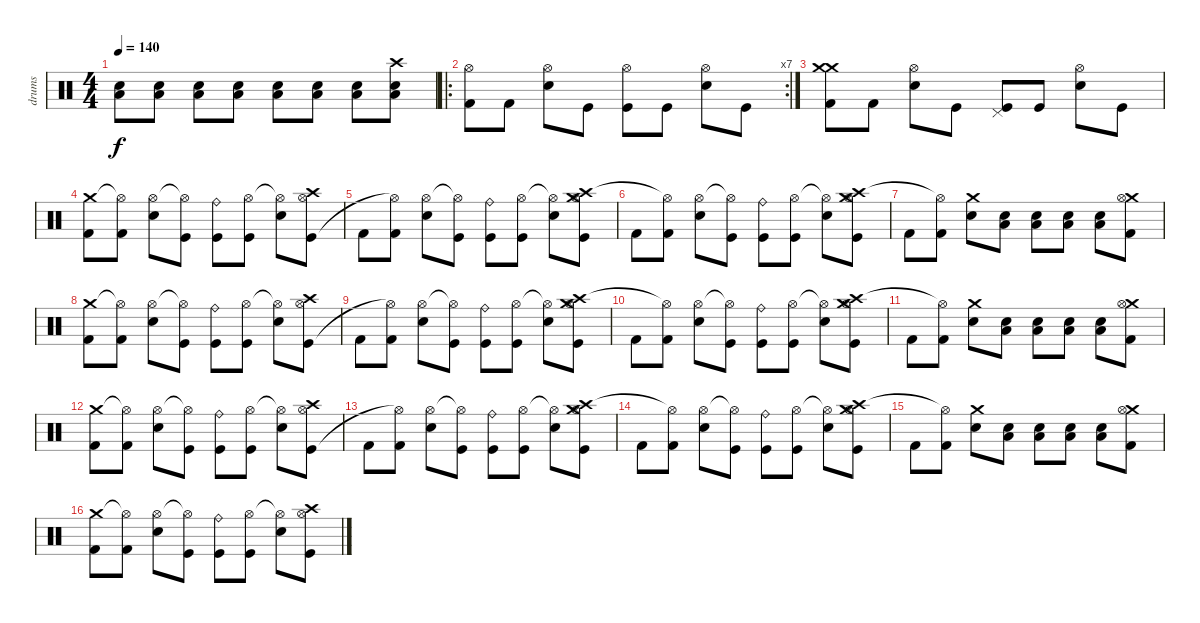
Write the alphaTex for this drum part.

\track ("drums" "drums") {instrument percussion}
\staff {score}
\articulation defaults
\ts (4 4)
\tempo 140
\clef neutral
\ks c
("Snare (hit) 2" "Low Floor Tom (hit)").8{dy f} ("Snare (hit) 2" "Low Floor Tom (hit)").8 ("Snare (hit) 2" "Low Floor Tom (hit)").8 ("Snare (hit) 2" "Low Floor Tom (hit)").8{volume 12} ("Snare (hit) 2" "Low Floor Tom (hit)").8 ("Snare (hit) 2" "Low Floor Tom (hit)").8 ("Snare (hit) 2" "Low Floor Tom (hit)").8 ("Crash high (hit)" "Snare (hit) 2" "Low Floor Tom (hit)").8 |
\ro
\rc 7
("Kick (hit) 2" "Hi-Hat (open)").8 "Kick (hit) 2".8 ("Snare (hit) 2" "Hi-Hat (open)").8 "Kick (hit)".8 ("Kick (hit)" "Hi-Hat (open)").8 "Kick (hit)".8 ("Snare (hit) 2" "Hi-Hat (open)").8 "Kick (hit)".8 |
("Crash medium (hit)" "Kick (hit) 2" "Crash medium (hit)").8 "Kick (hit) 2".8 ("Snare (hit) 2" "Hi-Hat (open)").8 "Kick (hit)".8 ("Kick (hit)" "Pedal Hi-Hat (hit)").8 "Kick (hit)".8 ("Snare (hit) 2" "Hi-Hat (open)").8 "Kick (hit)".8 |
("Kick (hit) 2" "Crash medium (hit)").8 ("Kick (hit) 2" "Hi-Hat (open)"{t}).8 ("Snare (hit) 2" "Hi-Hat (open)").8 ("Kick (hit)" "Hi-Hat (open)"{t}).8 ("Kick (hit)" "Ride (bell)").8 ("Kick (hit)" "Hi-Hat (open)").8 ("Snare (hit) 2" "Hi-Hat (open)"{t}).8 ("Crash high (hit)" "Kick (hit)" "Hi-Hat (open)").8 |
"Kick (hit) 2".8 ("Kick (hit) 2" "Hi-Hat (open)"{t}).8 ("Snare (hit) 2" "Hi-Hat (open)").8 ("Kick (hit)" "Hi-Hat (open)"{t}).8 ("Kick (hit)" "Ride (bell)").8 ("Kick (hit)" "Hi-Hat (open)").8 ("Snare (hit) 2" "Hi-Hat (open)"{t}).8 ("Crash medium (hit)" "Crash high (hit)" "Kick (hit)" "Hi-Hat (open)").8 |
"Kick (hit) 2".8 ("Kick (hit) 2" "Hi-Hat (open)"{t}).8 ("Snare (hit) 2" "Hi-Hat (open)").8 ("Kick (hit)" "Hi-Hat (open)"{t}).8 ("Kick (hit)" "Ride (bell)").8 ("Kick (hit)" "Hi-Hat (open)").8 ("Snare (hit) 2" "Hi-Hat (open)"{t}).8 ("Crash medium (hit)" "Crash high (hit)" "Kick (hit)" "Hi-Hat (open)").8 |
"Kick (hit) 2".8 ("Kick (hit) 2" "Hi-Hat (open)"{t}).8 ("Snare (hit) 2" "Crash medium (hit)").8 ("Snare (hit) 2" "Low Floor Tom (hit)").8 ("Snare (hit) 2" "Low Floor Tom (hit)").8 ("Snare (hit) 2" "Low Floor Tom (hit)").8 ("Snare (hit) 2" "Low Floor Tom (hit)").8 ("Crash medium (hit)" "Kick (hit) 2" "Hi-Hat (open)").8 |
("Kick (hit) 2" "Crash medium (hit)").8 ("Kick (hit) 2" "Hi-Hat (open)"{t}).8 ("Snare (hit) 2" "Hi-Hat (open)").8 ("Kick (hit)" "Hi-Hat (open)"{t}).8 ("Kick (hit)" "Ride (bell)").8 ("Kick (hit)" "Hi-Hat (open)").8 ("Snare (hit) 2" "Hi-Hat (open)"{t}).8 ("Crash high (hit)" "Kick (hit)" "Hi-Hat (open)").8 |
"Kick (hit) 2".8 ("Kick (hit) 2" "Hi-Hat (open)"{t}).8 ("Snare (hit) 2" "Hi-Hat (open)").8 ("Kick (hit)" "Hi-Hat (open)"{t}).8 ("Kick (hit)" "Ride (bell)").8 ("Kick (hit)" "Hi-Hat (open)").8 ("Snare (hit) 2" "Hi-Hat (open)"{t}).8 ("Crash medium (hit)" "Crash high (hit)" "Kick (hit)" "Hi-Hat (open)").8 |
"Kick (hit) 2".8 ("Kick (hit) 2" "Hi-Hat (open)"{t}).8 ("Snare (hit) 2" "Hi-Hat (open)").8 ("Kick (hit)" "Hi-Hat (open)"{t}).8 ("Kick (hit)" "Ride (bell)").8 ("Kick (hit)" "Hi-Hat (open)").8 ("Snare (hit) 2" "Hi-Hat (open)"{t}).8 ("Crash medium (hit)" "Crash high (hit)" "Kick (hit)" "Hi-Hat (open)").8 |
"Kick (hit) 2".8 ("Kick (hit) 2" "Hi-Hat (open)"{t}).8 ("Snare (hit) 2" "Crash medium (hit)").8 ("Snare (hit) 2" "Low Floor Tom (hit)").8 ("Snare (hit) 2" "Low Floor Tom (hit)").8 ("Snare (hit) 2" "Low Floor Tom (hit)").8 ("Snare (hit) 2" "Low Floor Tom (hit)").8 ("Crash medium (hit)" "Kick (hit) 2" "Hi-Hat (open)").8 |
("Kick (hit) 2" "Crash medium (hit)").8 ("Kick (hit) 2" "Hi-Hat (open)"{t}).8 ("Snare (hit) 2" "Hi-Hat (open)").8 ("Kick (hit)" "Hi-Hat (open)"{t}).8 ("Kick (hit)" "Ride (bell)").8 ("Kick (hit)" "Hi-Hat (open)").8 ("Snare (hit) 2" "Hi-Hat (open)"{t}).8 ("Crash high (hit)" "Kick (hit)" "Hi-Hat (open)").8 |
"Kick (hit) 2".8 ("Kick (hit) 2" "Hi-Hat (open)"{t}).8 ("Snare (hit) 2" "Hi-Hat (open)").8 ("Kick (hit)" "Hi-Hat (open)"{t}).8 ("Kick (hit)" "Ride (bell)").8 ("Kick (hit)" "Hi-Hat (open)").8 ("Snare (hit) 2" "Hi-Hat (open)"{t}).8 ("Crash medium (hit)" "Crash high (hit)" "Kick (hit)" "Hi-Hat (open)").8 |
"Kick (hit) 2".8 ("Kick (hit) 2" "Hi-Hat (open)"{t}).8 ("Snare (hit) 2" "Hi-Hat (open)").8 ("Kick (hit)" "Hi-Hat (open)"{t}).8 ("Kick (hit)" "Ride (bell)").8 ("Kick (hit)" "Hi-Hat (open)").8 ("Snare (hit) 2" "Hi-Hat (open)"{t}).8 ("Crash medium (hit)" "Crash high (hit)" "Kick (hit)" "Hi-Hat (open)").8 |
"Kick (hit) 2".8 ("Kick (hit) 2" "Hi-Hat (open)"{t}).8 ("Snare (hit) 2" "Crash medium (hit)").8 ("Snare (hit) 2" "Low Floor Tom (hit)").8 ("Snare (hit) 2" "Low Floor Tom (hit)").8 ("Snare (hit) 2" "Low Floor Tom (hit)").8 ("Snare (hit) 2" "Low Floor Tom (hit)").8 ("Crash medium (hit)" "Kick (hit) 2" "Hi-Hat (open)").8 |
("Kick (hit) 2" "Crash medium (hit)").8 ("Kick (hit) 2" "Hi-Hat (open)"{t}).8 ("Snare (hit) 2" "Hi-Hat (open)").8 ("Kick (hit)" "Hi-Hat (open)"{t}).8 ("Kick (hit)" "Ride (bell)").8 ("Kick (hit)" "Hi-Hat (open)").8 ("Snare (hit) 2" "Hi-Hat (open)"{t}).8 ("Crash high (hit)" "Kick (hit)" "Hi-Hat (open)").8
